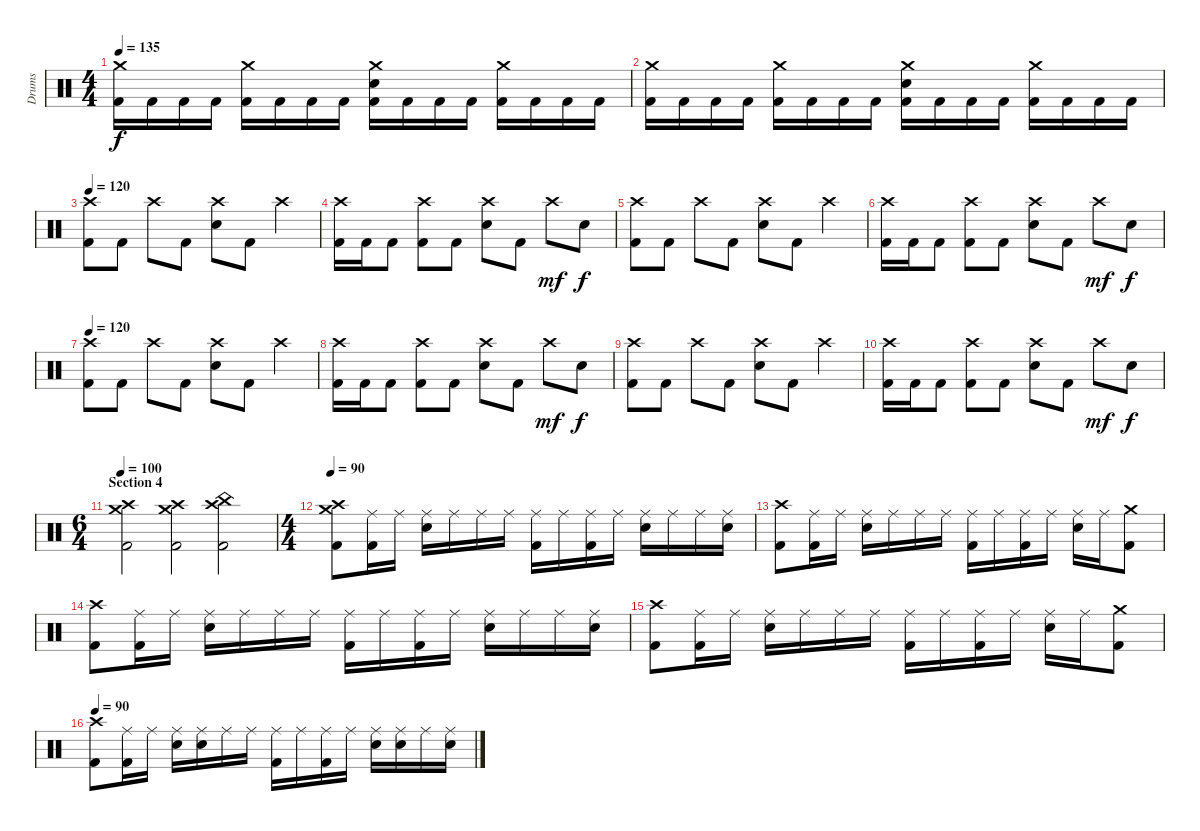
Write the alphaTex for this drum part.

\track ("Drums" "Drums") {instrument percussion}
\staff {score}
\articulation defaults
\ts (4 4)
\tempo 135
\clef neutral
\ks c
("Crash medium (hit)" "Kick (hit) 2").16{dy f} "Kick (hit) 2".16 "Kick (hit) 2".16 "Kick (hit) 2".16 ("Crash medium (hit)" "Kick (hit) 2").16 "Kick (hit) 2".16 "Kick (hit) 2".16 "Kick (hit) 2".16 ("Crash medium (hit)" "Electric Snare (hit)" "Kick (hit) 2").16 "Kick (hit) 2".16 "Kick (hit) 2".16 "Kick (hit) 2".16 ("Crash medium (hit)" "Kick (hit) 2").16 "Kick (hit) 2".16 "Kick (hit) 2".16 "Kick (hit) 2".16 |
("Crash medium (hit)" "Kick (hit) 2").16 "Kick (hit) 2".16 "Kick (hit) 2".16 "Kick (hit) 2".16 ("Crash medium (hit)" "Kick (hit) 2").16 "Kick (hit) 2".16 "Kick (hit) 2".16 "Kick (hit) 2".16 ("Crash medium (hit)" "Electric Snare (hit)" "Kick (hit) 2").16 "Kick (hit) 2".16 "Kick (hit) 2".16 "Kick (hit) 2".16 ("Crash medium (hit)" "Kick (hit) 2").16 "Kick (hit) 2".16 "Kick (hit) 2".16 "Kick (hit) 2".16 |
\tempo 120
("Crash high (hit)" "Kick (hit) 2").8 "Kick (hit) 2".8 "Crash high (hit)".8 "Kick (hit) 2".8 ("Crash high (hit)" "Electric Snare (hit)").8 "Kick (hit) 2".8 "Crash high (hit)".4 |
("Crash high (hit)" "Kick (hit) 2").16 "Kick (hit) 2".16 "Kick (hit) 2".8 ("Crash high (hit)" "Kick (hit) 2").8 "Kick (hit) 2".8 ("Crash high (hit)" "Electric Snare (hit)").8 "Kick (hit) 2".8 "Crash high (hit)".8{dy mf} "Electric Snare (hit)".8{dy f} |
("Crash high (hit)" "Kick (hit) 2").8 "Kick (hit) 2".8 "Crash high (hit)".8 "Kick (hit) 2".8 ("Crash high (hit)" "Electric Snare (hit)").8 "Kick (hit) 2".8 "Crash high (hit)".4 |
("Crash high (hit)" "Kick (hit) 2").16 "Kick (hit) 2".16 "Kick (hit) 2".8 ("Crash high (hit)" "Kick (hit) 2").8 "Kick (hit) 2".8 ("Crash high (hit)" "Electric Snare (hit)").8 "Kick (hit) 2".8 "Crash high (hit)".8{dy mf} "Electric Snare (hit)".8{dy f} |
\tempo 120
("Crash high (hit)" "Kick (hit) 2").8 "Kick (hit) 2".8 "Crash high (hit)".8 "Kick (hit) 2".8 ("Crash high (hit)" "Electric Snare (hit)").8 "Kick (hit) 2".8 "Crash high (hit)".4 |
("Crash high (hit)" "Kick (hit) 2").16 "Kick (hit) 2".16 "Kick (hit) 2".8 ("Crash high (hit)" "Kick (hit) 2").8 "Kick (hit) 2".8 ("Crash high (hit)" "Electric Snare (hit)").8 "Kick (hit) 2".8 "Crash high (hit)".8{dy mf} "Electric Snare (hit)".8{dy f} |
("Crash high (hit)" "Kick (hit) 2").8 "Kick (hit) 2".8 "Crash high (hit)".8 "Kick (hit) 2".8 ("Crash high (hit)" "Electric Snare (hit)").8 "Kick (hit) 2".8 "Crash high (hit)".4 |
("Crash high (hit)" "Kick (hit) 2").16 "Kick (hit) 2".16 "Kick (hit) 2".8 ("Crash high (hit)" "Kick (hit) 2").8 "Kick (hit) 2".8 ("Crash high (hit)" "Electric Snare (hit)").8 "Kick (hit) 2".8 "Crash high (hit)".8{dy mf} "Electric Snare (hit)".8{dy f} |
\ts (6 4)
\section ("" "Section 4")
\tempo 100
("Crash high (hit)" "Crash medium (hit)" "Kick (hit) 2").2 ("Crash high (hit)" "Crash medium (hit)" "Kick (hit) 2").2 ("Crash high (hit)" "China (hit)" "Kick (hit) 2").2 |
\ts (4 4)
\tempo 90
("Crash medium (hit)" "Crash high (hit)" "Kick (hit) 2").8 ("Ride (middle)" "Kick (hit) 2").16 "Ride (middle)".16 ("Ride (middle)" "Electric Snare (hit)").16 "Ride (middle)".16 "Ride (middle)".16 "Ride (middle)".16 ("Ride (middle)" "Kick (hit) 2").16 "Ride (middle)".16 ("Ride (middle)" "Kick (hit) 2").16 "Ride (middle)".16 ("Ride (middle)" "Electric Snare (hit)").16 "Ride (middle)".16 "Ride (middle)".16 ("Ride (middle)" "Electric Snare (hit)").16 |
("Crash high (hit)" "Kick (hit) 2").8 ("Ride (middle)" "Kick (hit) 2").16 "Ride (middle)".16 ("Ride (middle)" "Electric Snare (hit)").16 "Ride (middle)".16 "Ride (middle)".16 "Ride (middle)".16 ("Ride (middle)" "Kick (hit) 2").16 "Ride (middle)".16 ("Ride (middle)" "Kick (hit) 2").16 "Ride (middle)".16 ("Ride (middle)" "Electric Snare (hit)").16 "Ride (middle)".16 ("Crash medium (hit)" "Kick (hit) 2").8 |
("Crash high (hit)" "Kick (hit) 2").8 ("Ride (middle)" "Kick (hit) 2").16 "Ride (middle)".16 ("Ride (middle)" "Electric Snare (hit)").16 "Ride (middle)".16 "Ride (middle)".16 "Ride (middle)".16 ("Ride (middle)" "Kick (hit) 2").16 "Ride (middle)".16 ("Ride (middle)" "Kick (hit) 2").16 "Ride (middle)".16 ("Ride (middle)" "Electric Snare (hit)").16 "Ride (middle)".16 "Ride (middle)".16 ("Ride (middle)" "Electric Snare (hit)").16 |
("Crash high (hit)" "Kick (hit) 2").8 ("Ride (middle)" "Kick (hit) 2").16 "Ride (middle)".16 ("Ride (middle)" "Electric Snare (hit)").16 "Ride (middle)".16 "Ride (middle)".16 "Ride (middle)".16 ("Ride (middle)" "Kick (hit) 2").16 "Ride (middle)".16 ("Ride (middle)" "Kick (hit) 2").16 "Ride (middle)".16 ("Ride (middle)" "Electric Snare (hit)").16 "Ride (middle)".16 ("Crash medium (hit)" "Kick (hit) 2").8 |
\tempo 90
("Crash high (hit)" "Kick (hit) 2").8 ("Ride (middle)" "Kick (hit) 2").16 "Ride (middle)".16 ("Ride (middle)" "Electric Snare (hit)").16 ("Ride (middle)" "Electric Snare (hit)").16 "Ride (middle)".16 "Ride (middle)".16 ("Ride (middle)" "Kick (hit) 2").16 "Ride (middle)".16 ("Ride (middle)" "Kick (hit) 2").16 "Ride (middle)".16 ("Ride (middle)" "Electric Snare (hit)").16 ("Ride (middle)" "Electric Snare (hit)").16 "Ride (middle)".16 ("Ride (middle)" "Electric Snare (hit)").16
